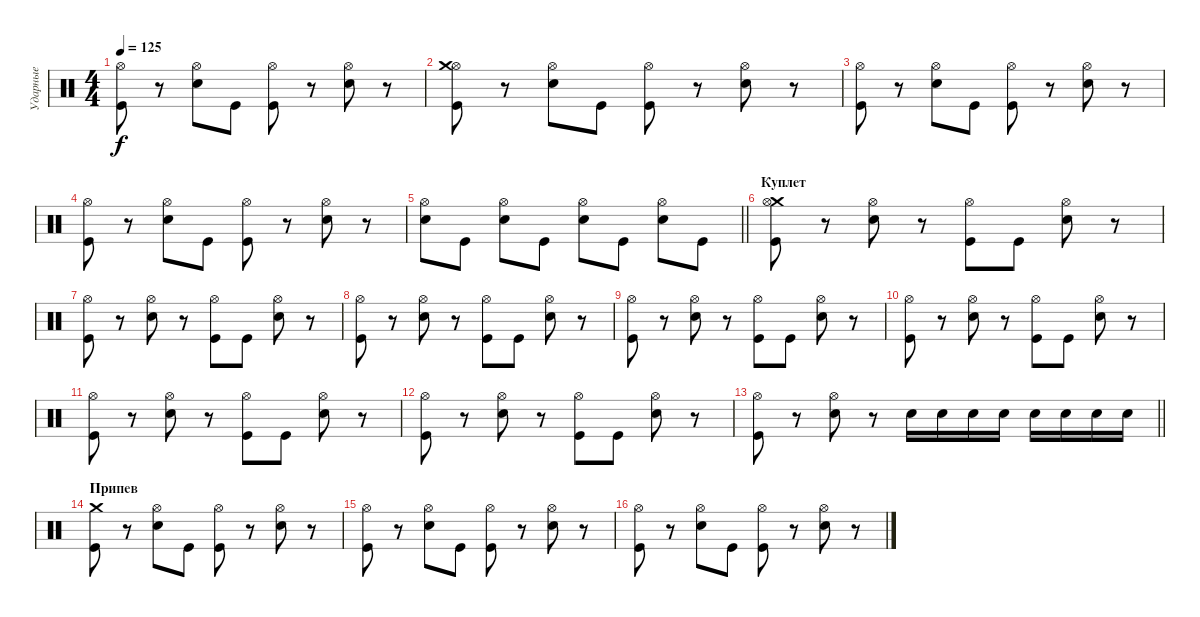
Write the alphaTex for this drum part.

\track ("Ударные" "Ударные") {instrument percussion}
\staff {score}
\articulation defaults
\ts (4 4)
\tempo 125
\clef neutral
\ks c
("Hi-Hat (open)" "Kick (hit)").8{dy f} r.8 ("Hi-Hat (open)" "Electric Snare (hit)").8 "Kick (hit)".8 ("Hi-Hat (open)" "Kick (hit)").8 r.8 ("Hi-Hat (open)" "Electric Snare (hit)").8 r.8 |
("Hi-Hat (open)" "Kick (hit)" "Crash medium (hit)").8 r.8 ("Hi-Hat (open)" "Electric Snare (hit)").8 "Kick (hit)".8 ("Hi-Hat (open)" "Kick (hit)").8 r.8 ("Hi-Hat (open)" "Electric Snare (hit)").8 r.8 |
("Hi-Hat (open)" "Kick (hit)").8 r.8 ("Hi-Hat (open)" "Electric Snare (hit)").8 "Kick (hit)".8 ("Hi-Hat (open)" "Kick (hit)").8 r.8 ("Hi-Hat (open)" "Electric Snare (hit)").8 r.8 |
("Hi-Hat (open)" "Kick (hit)").8 r.8 ("Hi-Hat (open)" "Electric Snare (hit)").8 "Kick (hit)".8 ("Hi-Hat (open)" "Kick (hit)").8 r.8 ("Hi-Hat (open)" "Electric Snare (hit)").8 r.8 |
\barLineRight lightlight
("Hi-Hat (open)" "Electric Snare (hit)").8 "Kick (hit)".8 ("Hi-Hat (open)" "Electric Snare (hit)").8 "Kick (hit)".8 ("Hi-Hat (open)" "Electric Snare (hit)").8 "Kick (hit)".8 ("Hi-Hat (open)" "Electric Snare (hit)").8 "Kick (hit)".8 |
\section ("" "Куплет")
("Crash medium (hit)" "Hi-Hat (open)" "Kick (hit)").8 r.8 ("Hi-Hat (open)" "Electric Snare (hit)").8 r.8 ("Hi-Hat (open)" "Kick (hit)").8 "Kick (hit)".8 ("Hi-Hat (open)" "Electric Snare (hit)").8 r.8 |
("Hi-Hat (open)" "Kick (hit)").8 r.8 ("Hi-Hat (open)" "Electric Snare (hit)").8 r.8 ("Hi-Hat (open)" "Kick (hit)").8 "Kick (hit)".8 ("Hi-Hat (open)" "Electric Snare (hit)").8 r.8 |
("Hi-Hat (open)" "Kick (hit)").8 r.8 ("Hi-Hat (open)" "Electric Snare (hit)").8 r.8 ("Hi-Hat (open)" "Kick (hit)").8 "Kick (hit)".8 ("Hi-Hat (open)" "Electric Snare (hit)").8 r.8 |
("Hi-Hat (open)" "Kick (hit)").8 r.8 ("Hi-Hat (open)" "Electric Snare (hit)").8 r.8 ("Hi-Hat (open)" "Kick (hit)").8 "Kick (hit)".8 ("Hi-Hat (open)" "Electric Snare (hit)").8 r.8 |
("Hi-Hat (open)" "Kick (hit)").8 r.8 ("Hi-Hat (open)" "Electric Snare (hit)").8 r.8 ("Hi-Hat (open)" "Kick (hit)").8 "Kick (hit)".8 ("Hi-Hat (open)" "Electric Snare (hit)").8 r.8 |
("Hi-Hat (open)" "Kick (hit)").8 r.8 ("Hi-Hat (open)" "Electric Snare (hit)").8 r.8 ("Hi-Hat (open)" "Kick (hit)").8 "Kick (hit)".8 ("Hi-Hat (open)" "Electric Snare (hit)").8 r.8 |
("Hi-Hat (open)" "Kick (hit)").8 r.8 ("Hi-Hat (open)" "Electric Snare (hit)").8 r.8 ("Hi-Hat (open)" "Kick (hit)").8 "Kick (hit)".8 ("Hi-Hat (open)" "Electric Snare (hit)").8 r.8 |
\barLineRight lightlight
("Hi-Hat (open)" "Kick (hit)").8 r.8 ("Hi-Hat (open)" "Electric Snare (hit)").8 r.8 "Electric Snare (hit)".16 "Electric Snare (hit)".16 "Electric Snare (hit)".16 "Electric Snare (hit)".16 "Electric Snare (hit)".16 "Electric Snare (hit)".16 "Electric Snare (hit)".16 "Electric Snare (hit)".16 |
\section ("" "Припев")
("Crash medium (hit)" "Kick (hit)").8 r.8 ("Hi-Hat (open)" "Electric Snare (hit)").8 "Kick (hit)".8 ("Hi-Hat (open)" "Kick (hit)").8 r.8 ("Hi-Hat (open)" "Electric Snare (hit)").8 r.8 |
("Hi-Hat (open)" "Kick (hit)").8 r.8 ("Hi-Hat (open)" "Electric Snare (hit)").8 "Kick (hit)".8 ("Hi-Hat (open)" "Kick (hit)").8 r.8 ("Hi-Hat (open)" "Electric Snare (hit)").8 r.8 |
("Hi-Hat (open)" "Kick (hit)").8 r.8 ("Hi-Hat (open)" "Electric Snare (hit)").8 "Kick (hit)".8 ("Hi-Hat (open)" "Kick (hit)").8 r.8 ("Hi-Hat (open)" "Electric Snare (hit)").8 r.8
